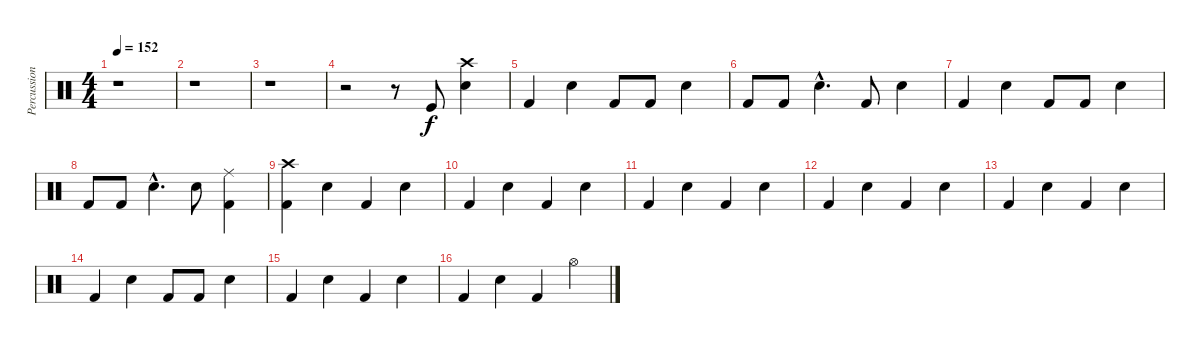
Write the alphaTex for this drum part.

\track ("Percussion" "Percussion") {instrument percussion}
\staff {score}
\articulation defaults
\ts (4 4)
\tempo 152
\clef neutral
\ks c
r.1{dy f} |
r.1 |
r.1 |
r.2 r.8 "Kick (hit)".8 ("Snare (hit) 2" "Crash high (hit)").4 |
"Kick (hit) 2".4 "Snare (hit) 2".4 "Kick (hit) 2".8 "Kick (hit) 2".8 "Snare (hit) 2".4 |
"Kick (hit) 2".8 "Kick (hit) 2".8 "Snare (hit) 2"{hac}.4{d} "Kick (hit) 2".8 "Snare (hit) 2".4 |
"Kick (hit) 2".4 "Snare (hit) 2".4 "Kick (hit) 2".8 "Kick (hit) 2".8 "Snare (hit) 2".4 |
"Kick (hit) 2".8 "Kick (hit) 2".8 "Snare (hit) 2"{hac}.4{d} "Snare (hit) 2".8 ("Kick (hit) 2" "Ride (middle)").4 |
("Kick (hit) 2" "Crash high (hit)").4 "Snare (hit) 2".4 "Kick (hit) 2".4 "Snare (hit) 2".4 |
"Kick (hit) 2".4 "Snare (hit) 2".4 "Kick (hit) 2".4 "Snare (hit) 2".4 |
"Kick (hit) 2".4 "Snare (hit) 2".4 "Kick (hit) 2".4 "Snare (hit) 2".4 |
"Kick (hit) 2".4 "Snare (hit) 2".4 "Kick (hit) 2".4 "Snare (hit) 2".4 |
"Kick (hit) 2".4 "Snare (hit) 2".4 "Kick (hit) 2".4 "Snare (hit) 2".4 |
"Kick (hit) 2".4 "Snare (hit) 2".4 "Kick (hit) 2".8 "Kick (hit) 2".8 "Snare (hit) 2".4 |
"Kick (hit) 2".4 "Snare (hit) 2".4 "Kick (hit) 2".4 "Snare (hit) 2".4 |
"Kick (hit) 2".4 "Snare (hit) 2".4 "Kick (hit) 2".4 "Hi-Hat (open)".4
